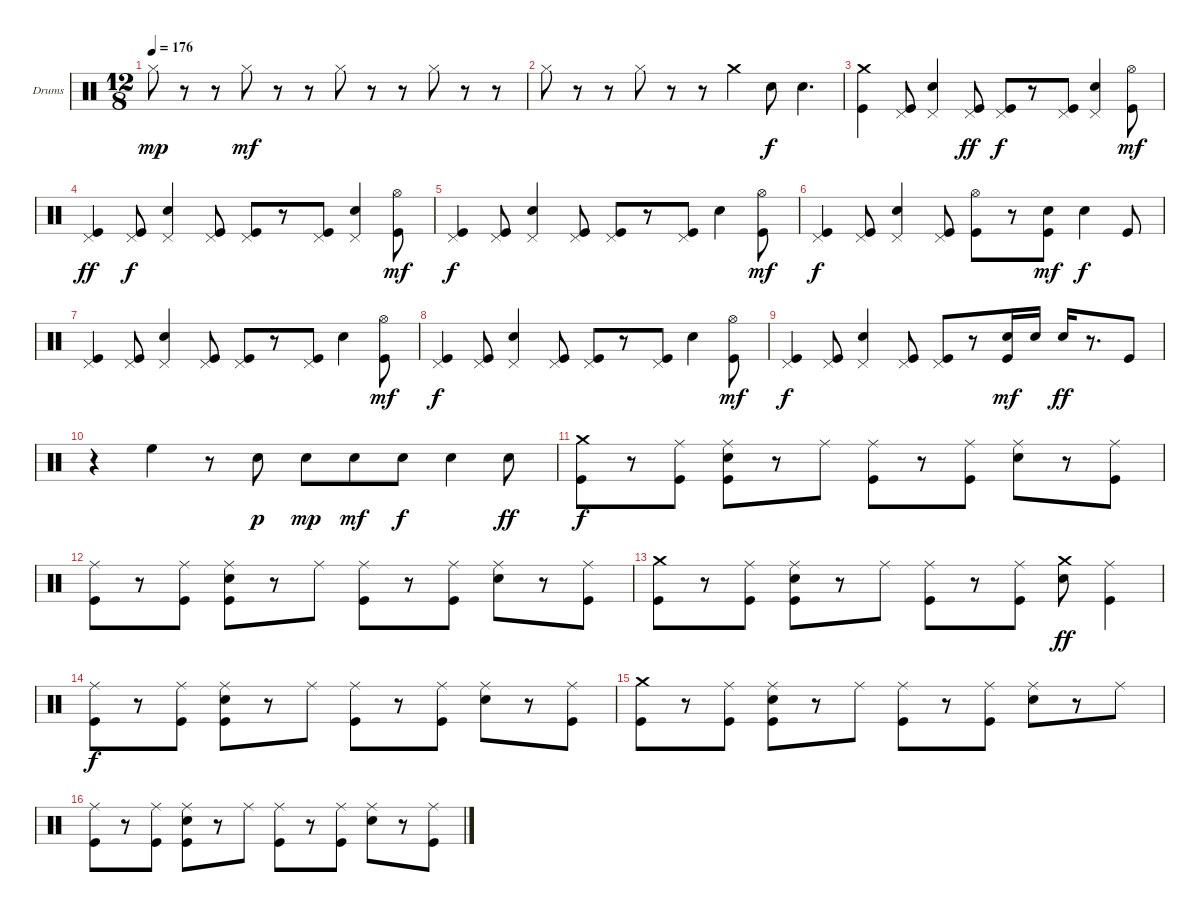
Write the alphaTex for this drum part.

\defaultSystemsLayout 4
\bracketExtendMode groupsimilarinstruments
\firstSystemTrackNameOrientation horizontal
\otherSystemsTrackNameOrientation horizontal
\track ("Drumkit" "Drums") {instrument percussion}
\staff {score}
\articulation defaults
\ts (12 8)
\tempo 176
\clef neutral
\scale
0.472222
\ks c "Hi-Hat (closed)".8{dy mp}
r.8 r.8 "Hi-Hat (closed)".8{dy mf} r.8 r.8 "Hi-Hat (closed)".8 r.8 r.8 "Hi-Hat (closed)".8 r.8 r.8 |
\scale
0.263889 "Hi-Hat (closed)".8 r.8 r.8 "Hi-Hat (closed)".8 r.8 r.8 "Crash medium (hit)".4 "Snare (hit) 2".8{dy f} "Snare (hit) 2".4{d} |
\scale
0.263889 ("Crash medium (hit)" "Kick (hit)").4 ("Pedal Hi-Hat (hit)" "Kick (hit)").8 ("Snare (hit) 2" "Pedal Hi-Hat (hit)").4 ("Pedal Hi-Hat (hit)" "Kick (hit)").8{dy ff} ("Pedal Hi-Hat (hit)" "Kick (hit)").8{dy f} r.8 ("Pedal Hi-Hat (hit)" "Kick (hit)").8 ("Snare (hit) 2" "Pedal Hi-Hat (hit)").4 ("Hi-Hat (open)" "Kick (hit)").8{dy mf} |
\scale
0.333333 ("Pedal Hi-Hat (hit)" "Kick (hit)").4{dy ff} ("Pedal Hi-Hat (hit)" "Kick (hit)").8{dy f} ("Snare (hit) 2" "Pedal Hi-Hat (hit)").4 ("Pedal Hi-Hat (hit)" "Kick (hit)").8 ("Pedal Hi-Hat (hit)" "Kick (hit)").8 r.8 ("Pedal Hi-Hat (hit)" "Kick (hit)").8 ("Snare (hit) 2" "Pedal Hi-Hat (hit)").4 ("Hi-Hat (open)" "Kick (hit)").8{dy mf} |
\scale
0.333333 ("Pedal Hi-Hat (hit)" "Kick (hit)").4{dy f} ("Pedal Hi-Hat (hit)" "Kick (hit)").8 ("Snare (hit) 2" "Pedal Hi-Hat (hit)").4 ("Pedal Hi-Hat (hit)" "Kick (hit)").8 ("Pedal Hi-Hat (hit)" "Kick (hit)").8 r.8 ("Pedal Hi-Hat (hit)" "Kick (hit)").8 "Snare (hit) 2".4 ("Hi-Hat (open)" "Kick (hit)").8{dy mf} |
\scale
0.333333 ("Pedal Hi-Hat (hit)" "Kick (hit)").4{dy f} ("Pedal Hi-Hat (hit)" "Kick (hit)").8 ("Snare (hit) 2" "Pedal Hi-Hat (hit)").4 ("Pedal Hi-Hat (hit)" "Kick (hit)").8 ("Hi-Hat (open)" "Kick (hit)").8 r.8 ("Snare (hit) 2" "Kick (hit)").8{dy mf} "Snare (hit) 2".4{dy f} "Kick (hit)".8 |
\scale
0.333333 ("Pedal Hi-Hat (hit)" "Kick (hit)").4 ("Pedal Hi-Hat (hit)" "Kick (hit)").8 ("Snare (hit) 2" "Pedal Hi-Hat (hit)").4 ("Pedal Hi-Hat (hit)" "Kick (hit)").8 ("Pedal Hi-Hat (hit)" "Kick (hit)").8 r.8 ("Pedal Hi-Hat (hit)" "Kick (hit)").8 "Snare (hit) 2".4 ("Hi-Hat (open)" "Kick (hit)").8{dy mf} |
\scale
0.333333 ("Pedal Hi-Hat (hit)" "Kick (hit)").4{dy f} ("Pedal Hi-Hat (hit)" "Kick (hit)").8 ("Snare (hit) 2" "Pedal Hi-Hat (hit)").4 ("Pedal Hi-Hat (hit)" "Kick (hit)").8 ("Pedal Hi-Hat (hit)" "Kick (hit)").8 r.8 ("Pedal Hi-Hat (hit)" "Kick (hit)").8 "Snare (hit) 2".4 ("Hi-Hat (open)" "Kick (hit)").8{dy mf} |
\scale
0.333333 ("Pedal Hi-Hat (hit)" "Kick (hit)").4{dy f} ("Pedal Hi-Hat (hit)" "Kick (hit)").8 ("Snare (hit) 2" "Pedal Hi-Hat (hit)").4 ("Pedal Hi-Hat (hit)" "Kick (hit)").8 ("Pedal Hi-Hat (hit)" "Kick (hit)").8 r.8 ("Snare (hit) 2" "Kick (hit)").16{dy mf} "Snare (hit) 2".16 "Snare (hit) 2".16{dy ff} r.8{d} "Kick (hit)".8 |
\scale
0.333333 r.4 "High Floor Tom (hit)".4 r.8 "Snare (hit) 2".8{dy p} "Snare (hit) 2".8{dy mp} "Snare (hit) 2".8{dy mf} "Snare (hit) 2".8{dy f} "Snare (hit) 2".4 "Snare (hit) 2".8{dy ff} |
\scale
0.333333 ("Crash medium (hit)" "Kick (hit)").8{dy f} r.8 ("Ride (middle)" "Kick (hit)").8 ("Ride (middle)" "Snare (hit) 2" "Kick (hit)").8 r.8 "Ride (middle)".8 ("Ride (middle)" "Kick (hit)").8 r.8 ("Ride (middle)" "Kick (hit)").8 ("Ride (middle)" "Snare (hit) 2").8 r.8 ("Ride (middle)" "Kick (hit)").8 |
\scale
0.333333 ("Ride (middle)" "Kick (hit)").8 r.8 ("Ride (middle)" "Kick (hit)").8 ("Ride (middle)" "Snare (hit) 2" "Kick (hit)").8 r.8 "Ride (middle)".8 ("Ride (middle)" "Kick (hit)").8 r.8 ("Ride (middle)" "Kick (hit)").8 ("Ride (middle)" "Snare (hit) 2").8 r.8 ("Ride (middle)" "Kick (hit)").8 |
\scale
0.333333 ("Crash medium (hit)" "Kick (hit)").8 r.8 ("Ride (middle)" "Kick (hit)").8 ("Ride (middle)" "Snare (hit) 2" "Kick (hit)").8 r.8 "Ride (middle)".8 ("Ride (middle)" "Kick (hit)").8 r.8 ("Ride (middle)" "Kick (hit)").8 ("Crash medium (hit)" "Snare (hit) 2").8{dy ff} ("Ride (middle)" "Kick (hit)").4 |
\scale
0.333333 ("Ride (middle)" "Kick (hit)").8{dy f} r.8 ("Ride (middle)" "Kick (hit)").8 ("Ride (middle)" "Snare (hit) 2" "Kick (hit)").8 r.8 "Ride (middle)".8 ("Ride (middle)" "Kick (hit)").8 r.8 ("Ride (middle)" "Kick (hit)").8 ("Ride (middle)" "Snare (hit) 2").8 r.8 ("Ride (middle)" "Kick (hit)").8 |
\scale
0.333333 ("Crash medium (hit)" "Kick (hit)").8 r.8 ("Ride (middle)" "Kick (hit)").8 ("Ride (middle)" "Snare (hit) 2" "Kick (hit)").8 r.8 "Ride (middle)".8 ("Ride (middle)" "Kick (hit)").8 r.8 ("Ride (middle)" "Kick (hit)").8 ("Ride (middle)" "Snare (hit) 2").8 r.8 "Ride (middle)".8 |
\scale
0.333333 ("Ride (middle)" "Kick (hit)").8 r.8 ("Ride (middle)" "Kick (hit)").8 ("Ride (middle)" "Snare (hit) 2" "Kick (hit)").8 r.8 "Ride (middle)".8 ("Ride (middle)" "Kick (hit)").8 r.8 ("Ride (middle)" "Kick (hit)").8 ("Ride (middle)" "Snare (hit) 2").8 r.8 ("Ride (middle)" "Kick (hit)").8
